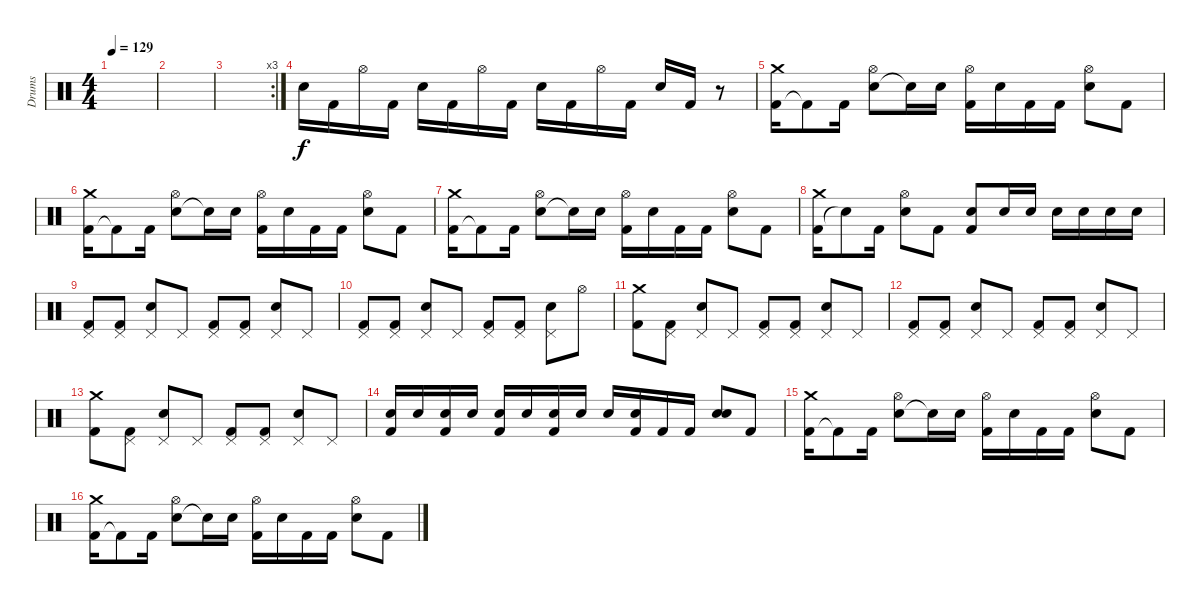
\track ("Drums" "Drums") {instrument percussion}
\staff {score}
\articulation defaults
\ts (4 4)
\tempo 129
\clef neutral
\ks c
|
|
\rc 3
|
"Snare (hit) 2".16 "Kick (hit) 2".16 "Hi-Hat (open)".16 "Kick (hit) 2".16 "Snare (hit) 2".16 "Kick (hit) 2".16 "Hi-Hat (open)".16 "Kick (hit) 2".16 "Snare (hit) 2".16 "Kick (hit) 2".16 "Hi-Hat (open)".16 "Kick (hit) 2".16 "Snare (hit) 2".16 "Kick (hit) 2".16 r.8 |
("Kick (hit) 2" "Crash medium (hit)").16 "Kick (hit) 2"{t}.8 "Kick (hit) 2".16 ("Snare (hit) 2" "Hi-Hat (open)").8 "Snare (hit)"{t}.16 "Snare (hit) 2".16 ("Kick (hit) 2" "Hi-Hat (open)").16 "Snare (hit) 2".16 "Kick (hit) 2".16 "Kick (hit) 2".16 ("Snare (hit) 2" "Hi-Hat (open)").8 "Kick (hit) 2".8 |
("Kick (hit) 2" "Crash medium (hit)").16 "Kick (hit) 2"{t}.8 "Kick (hit) 2".16 ("Snare (hit) 2" "Hi-Hat (open)").8 "Snare (hit)"{t}.16 "Snare (hit) 2".16 ("Kick (hit) 2" "Hi-Hat (open)").16 "Snare (hit) 2".16 "Kick (hit) 2".16 "Kick (hit) 2".16 ("Snare (hit) 2" "Hi-Hat (open)").8 "Kick (hit) 2".8 |
("Kick (hit) 2" "Crash medium (hit)").16 "Kick (hit) 2"{t}.8 "Kick (hit) 2".16 ("Snare (hit) 2" "Hi-Hat (open)").8 "Snare (hit)"{t}.16 "Snare (hit) 2".16 ("Kick (hit) 2" "Hi-Hat (open)").16 "Snare (hit) 2".16 "Kick (hit) 2".16 "Kick (hit) 2".16 ("Snare (hit) 2" "Hi-Hat (open)").8 "Kick (hit) 2".8 |
("Kick (hit) 2" "Crash medium (hit)").16 "Snare (hit)"{t}.8 "Kick (hit) 2".16 ("Snare (hit) 2" "Hi-Hat (open)").8 "Kick (hit) 2".8 ("Snare (hit) 2" "Kick (hit) 2").8 "Snare (hit) 2".16 "Snare (hit) 2".16 "Snare (hit) 2".16 "Snare (hit) 2".16 "Snare (hit) 2".16 "Snare (hit) 2".16 |
("Kick (hit) 2" "Pedal Hi-Hat (hit)").8 ("Kick (hit) 2" "Pedal Hi-Hat (hit)").8 ("Snare (hit) 2" "Pedal Hi-Hat (hit)").8 "Pedal Hi-Hat (hit)".8 ("Kick (hit) 2" "Pedal Hi-Hat (hit)").8 ("Kick (hit) 2" "Pedal Hi-Hat (hit)").8 ("Snare (hit) 2" "Pedal Hi-Hat (hit)").8 "Pedal Hi-Hat (hit)".8 |
("Kick (hit) 2" "Pedal Hi-Hat (hit)").8 ("Kick (hit) 2" "Pedal Hi-Hat (hit)").8 ("Snare (hit) 2" "Pedal Hi-Hat (hit)").8 "Pedal Hi-Hat (hit)".8 ("Kick (hit) 2" "Pedal Hi-Hat (hit)").8 ("Kick (hit) 2" "Pedal Hi-Hat (hit)").8 ("Snare (hit) 2" "Pedal Hi-Hat (hit)").8 "Hi-Hat (open)".8 |
("Kick (hit) 2" "Crash medium (hit)").8 ("Kick (hit) 2" "Pedal Hi-Hat (hit)").8 ("Snare (hit) 2" "Pedal Hi-Hat (hit)").8 "Pedal Hi-Hat (hit)".8 ("Kick (hit) 2" "Pedal Hi-Hat (hit)").8 ("Kick (hit) 2" "Pedal Hi-Hat (hit)").8 ("Snare (hit) 2" "Pedal Hi-Hat (hit)").8 "Pedal Hi-Hat (hit)".8 |
("Kick (hit) 2" "Pedal Hi-Hat (hit)").8 ("Kick (hit) 2" "Pedal Hi-Hat (hit)").8 ("Snare (hit) 2" "Pedal Hi-Hat (hit)").8 "Pedal Hi-Hat (hit)".8 ("Kick (hit) 2" "Pedal Hi-Hat (hit)").8 ("Kick (hit) 2" "Pedal Hi-Hat (hit)").8 ("Snare (hit) 2" "Pedal Hi-Hat (hit)").8 "Pedal Hi-Hat (hit)".8 |
("Kick (hit) 2" "Crash medium (hit)").8 ("Kick (hit) 2" "Pedal Hi-Hat (hit)").8 ("Snare (hit) 2" "Pedal Hi-Hat (hit)").8 "Pedal Hi-Hat (hit)".8 ("Kick (hit) 2" "Pedal Hi-Hat (hit)").8 ("Kick (hit) 2" "Pedal Hi-Hat (hit)").8 ("Snare (hit) 2" "Pedal Hi-Hat (hit)").8 "Pedal Hi-Hat (hit)".8 |
("Snare (hit) 2" "Kick (hit) 2").16 "Snare (hit) 2".16 ("Snare (hit) 2" "Kick (hit) 2").16 "Snare (hit) 2".16 ("Snare (hit) 2" "Kick (hit) 2").16 "Snare (hit) 2".16 ("Snare (hit) 2" "Kick (hit) 2").16 "Snare (hit) 2".16 "Snare (hit) 2".16 ("Snare (hit) 2" "Kick (hit) 2").16 "Kick (hit) 2".16 "Kick (hit) 2".16 ("Snare (hit) 2" "Electric Snare (hit)").8 "Kick (hit) 2".8 |
("Kick (hit) 2" "Crash medium (hit)").16 "Kick (hit) 2"{t}.8 "Kick (hit) 2".16 ("Snare (hit) 2" "Hi-Hat (open)").8 "Snare (hit)"{t}.16 "Snare (hit) 2".16 ("Kick (hit) 2" "Hi-Hat (open)").16 "Snare (hit) 2".16 "Kick (hit) 2".16 "Kick (hit) 2".16 ("Snare (hit) 2" "Hi-Hat (open)").8 "Kick (hit) 2".8 |
("Kick (hit) 2" "Crash medium (hit)").16 "Kick (hit) 2"{t}.8 "Kick (hit) 2".16 ("Snare (hit) 2" "Hi-Hat (open)").8 "Snare (hit)"{t}.16 "Snare (hit) 2".16 ("Kick (hit) 2" "Hi-Hat (open)").16 "Snare (hit) 2".16 "Kick (hit) 2".16 "Kick (hit) 2".16 ("Snare (hit) 2" "Hi-Hat (open)").8 "Kick (hit) 2".8
